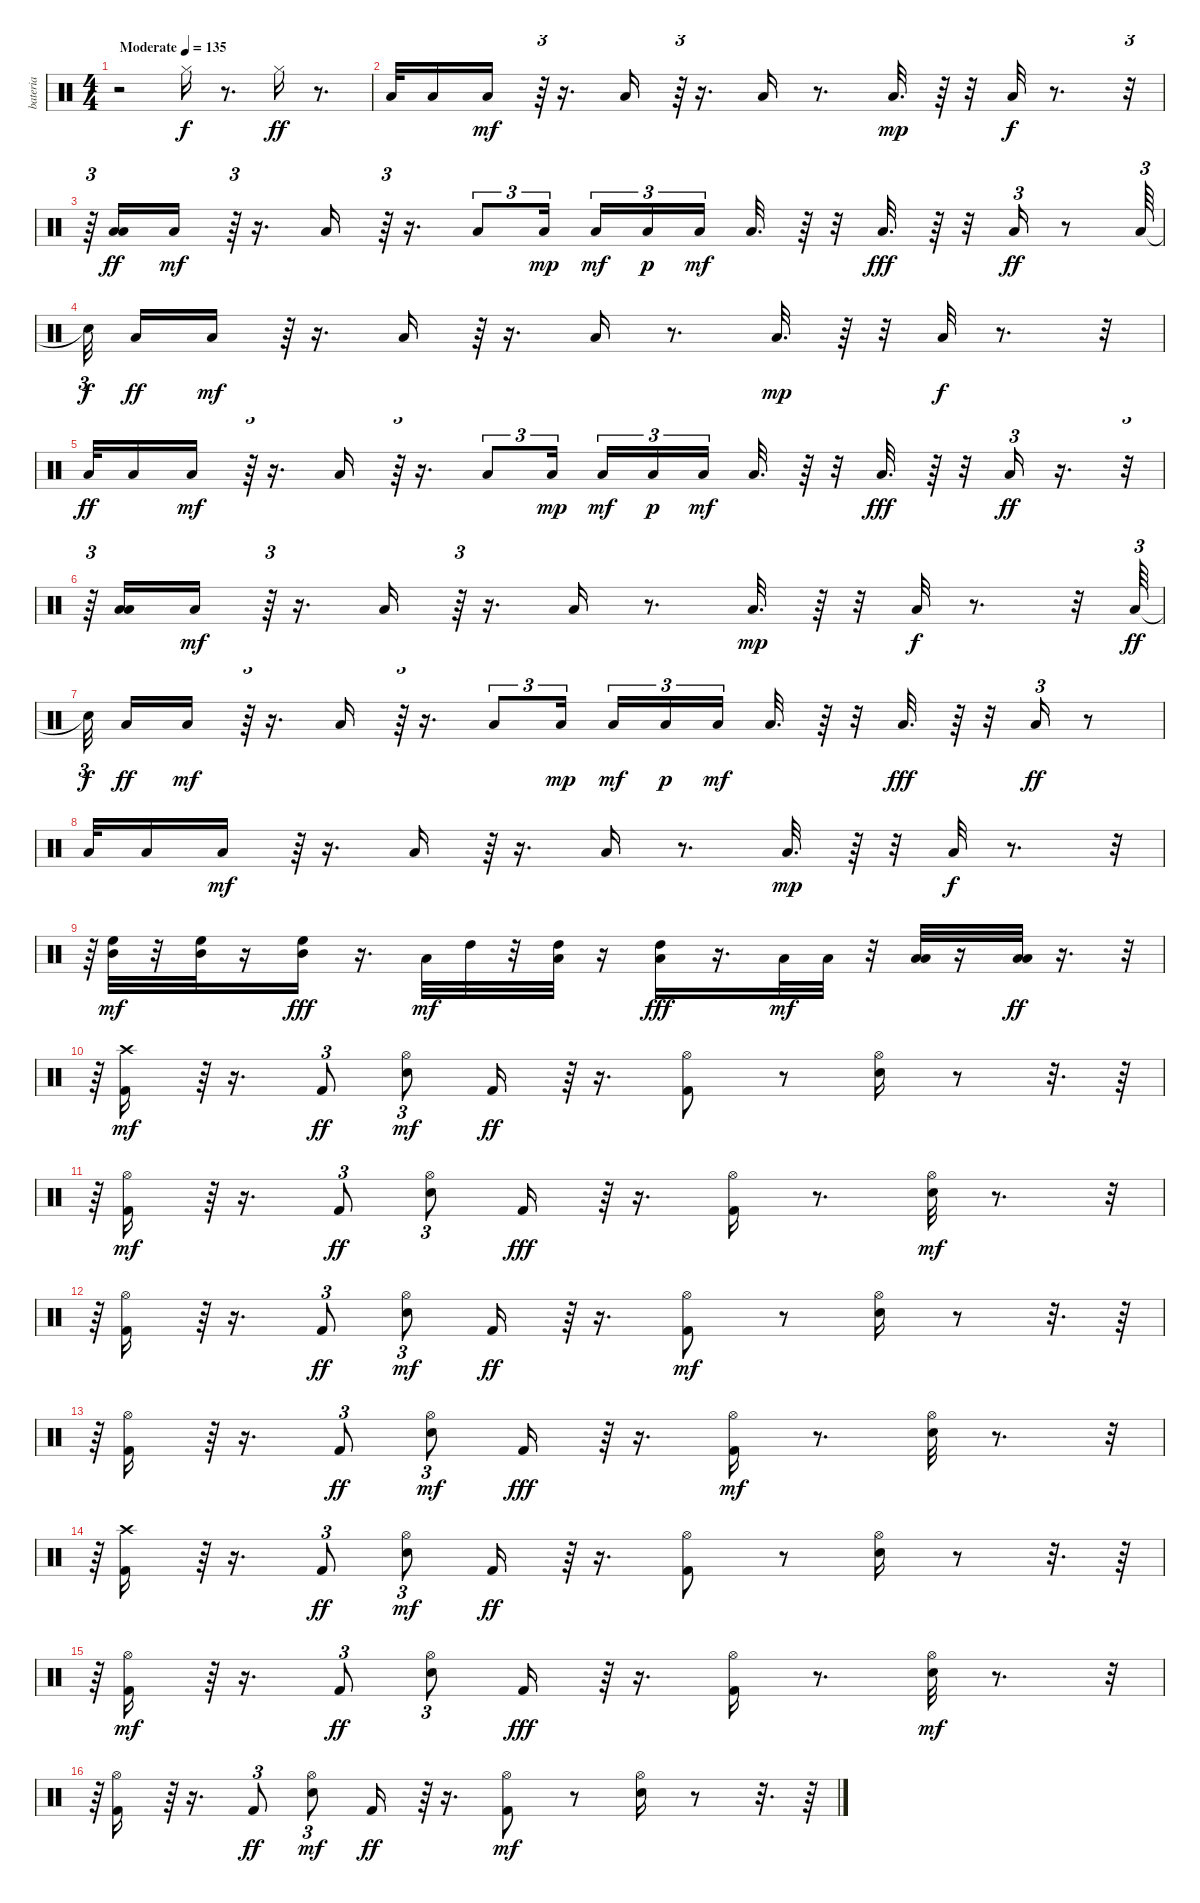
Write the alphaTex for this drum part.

\track ("bateria" "bateria") {instrument percussion}
\staff {score}
\articulation defaults
\ts (4 4)
\tempo (135 "Moderate")
\clef neutral
\ks c
r.2{dy f} "Hi-Hat (closed)".16 r.8{d} "Hi-Hat (closed)".16{dy ff} r.8{d} |
"Low Floor Tom (hit)".32 "Low Floor Tom (hit)".16 "Low Floor Tom (hit)".16{dy mf} r.64{tu (3 2)} r.16{d} "Low Floor Tom (hit)".16 r.64{tu (3 2)} r.16{d} "Low Floor Tom (hit)".16 r.8{d} "Low Floor Tom (hit)".32{d dy mp} r.64 r.32 "Low Floor Tom (hit)".32{dy f} r.8{d} r.32{tu (3 2)} |
r.64{tu (3 2)} ("Low Floor Tom (hit)" "Low Floor Tom (hit)").16{dy ff} "Low Floor Tom (hit)".16{dy mf} r.64{tu (3 2)} r.16{d} "Low Floor Tom (hit)".16 r.64{tu (3 2)} r.16{d} "Low Floor Tom (hit)".8{tu (3 2)} "Low Floor Tom (hit)".16{tu (3 2) dy mp} "Low Floor Tom (hit)".16{tu (3 2) dy mf} "Low Floor Tom (hit)".16{tu (3 2) dy p} "Low Floor Tom (hit)".16{tu (3 2) dy mf beam splitsecondary} "Low Floor Tom (hit)".32{d} r.64 r.32 "Low Floor Tom (hit)".32{d dy fff} r.64 r.32 "Low Floor Tom (hit)".16{tu (3 2) dy ff} r.8 "Low Floor Tom (hit)".64{tu (3 2)} |
"Snare (hit)"{t}.32{tu (3 2) dy f beam splitsecondary} "Low Floor Tom (hit)".16{dy ff} "Low Floor Tom (hit)".16{dy mf} r.64{tu (3 2)} r.16{d} "Low Floor Tom (hit)".16 r.64{tu (3 2)} r.16{d} "Low Floor Tom (hit)".16 r.8{d} "Low Floor Tom (hit)".32{d dy mp} r.64 r.32 "Low Floor Tom (hit)".32{dy f} r.8{d} r.32 |
"Low Floor Tom (hit)".32{dy ff} "Low Floor Tom (hit)".16 "Low Floor Tom (hit)".16{dy mf} r.64{tu (3 2)} r.16{d} "Low Floor Tom (hit)".16 r.64{tu (3 2)} r.16{d} "Low Floor Tom (hit)".8{tu (3 2)} "Low Floor Tom (hit)".16{tu (3 2) dy mp beam splitsecondary} "Low Floor Tom (hit)".16{tu (3 2) dy mf} "Low Floor Tom (hit)".16{tu (3 2) dy p} "Low Floor Tom (hit)".16{tu (3 2) dy mf beam splitsecondary} "Low Floor Tom (hit)".32{d} r.64 r.32 "Low Floor Tom (hit)".32{d dy fff} r.64 r.32 "Low Floor Tom (hit)".16{tu (3 2) dy ff} r.16{d} r.32{tu (3 2)} |
r.64{tu (3 2)} ("Low Floor Tom (hit)" "Low Floor Tom (hit)").16 "Low Floor Tom (hit)".16{dy mf} r.64{tu (3 2)} r.16{d} "Low Floor Tom (hit)".16 r.64{tu (3 2)} r.16{d} "Low Floor Tom (hit)".16 r.8{d} "Low Floor Tom (hit)".32{d dy mp} r.64 r.32 "Low Floor Tom (hit)".32{dy f} r.8{d} r.32 "Low Floor Tom (hit)".64{tu (3 2) dy ff} |
"Snare (hit)"{t}.32{tu (3 2) dy f beam splitsecondary} "Low Floor Tom (hit)".16{dy ff} "Low Floor Tom (hit)".16{dy mf} r.64{tu (3 2)} r.16{d} "Low Floor Tom (hit)".16 r.64{tu (3 2)} r.16{d} "Low Floor Tom (hit)".8{tu (3 2)} "Low Floor Tom (hit)".16{tu (3 2) dy mp beam splitsecondary} "Low Floor Tom (hit)".16{tu (3 2) dy mf} "Low Floor Tom (hit)".16{tu (3 2) dy p} "Low Floor Tom (hit)".16{tu (3 2) dy mf beam splitsecondary} "Low Floor Tom (hit)".32{d} r.64 r.32 "Low Floor Tom (hit)".32{d dy fff} r.64 r.32 "Low Floor Tom (hit)".16{tu (3 2) dy ff} r.8 |
"Low Floor Tom (hit)".32 "Low Floor Tom (hit)".16 "Low Floor Tom (hit)".16{dy mf} r.64{tu (3 2)} r.16{d} "Low Floor Tom (hit)".16 r.64{tu (3 2)} r.16{d} "Low Floor Tom (hit)".16 r.8{d} "Low Floor Tom (hit)".32{d dy mp} r.64 r.32 "Low Floor Tom (hit)".32{dy f} r.8{d} r.32{tu (3 2)} |
r.64{tu (3 2)} ("Mid Tom (hit)" "High Floor Tom (hit)").32{dy mf} r.32 ("High Floor Tom (hit)" "Mid Tom (hit)").32 r.16 ("High Floor Tom (hit)" "Mid Tom (hit)").16{dy fff} r.16{d} "Low Tom (hit)".32{dy mf} "High Tom (hit)".32 r.32 ("High Tom (hit)" "Low Tom (hit)").32 r.16 ("High Tom (hit)" "Low Tom (hit)").16{dy fff} r.16{d} "Low Floor Tom (hit)".32{dy mf} "Low Tom (hit)".32 r.32 ("Low Tom (hit)" "Low Floor Tom (hit)").32 r.16 ("Low Tom (hit)" "Low Floor Tom (hit)").32{dy ff} r.16{d} r.32{tu (3 2)} |
r.64{tu (3 2)} ("Kick (hit) 2" "Crash high (hit)").16{dy mf} r.64{tu (3 2)} r.16{d} "Kick (hit) 2".8{tu (3 2) dy ff} ("Hi-Hat (open)" "Electric Snare (hit)").8{tu (3 2) dy mf} "Kick (hit) 2".16{dy ff} r.64{tu (3 2)} r.16{d} ("Hi-Hat (open)" "Kick (hit) 2").8 r.8 ("Hi-Hat (open)" "Electric Snare (hit)").16 r.8 r.32{d} r.64 |
r.64{tu (3 2)} ("Kick (hit) 2" "Hi-Hat (open)").16{dy mf} r.64{tu (3 2)} r.16{d} "Kick (hit) 2".8{tu (3 2) dy ff} ("Hi-Hat (open)" "Electric Snare (hit)").8{tu (3 2)} "Kick (hit) 2".16{dy fff} r.64{tu (3 2)} r.16{d} ("Hi-Hat (open)" "Kick (hit) 2").16 r.8{d} ("Electric Snare (hit)" "Hi-Hat (open)").32{dy mf} r.8{d} r.32{tu (3 2)} |
r.64{tu (3 2)} ("Kick (hit) 2" "Hi-Hat (open)").16 r.64{tu (3 2)} r.16{d} "Kick (hit) 2".8{tu (3 2) dy ff} ("Electric Snare (hit)" "Hi-Hat (open)").8{tu (3 2) dy mf} "Kick (hit) 2".16{dy ff} r.64{tu (3 2)} r.16{d} ("Kick (hit) 2" "Hi-Hat (open)").8{dy mf} r.8 ("Electric Snare (hit)" "Hi-Hat (open)").16 r.8 r.32{d} r.64 |
r.64{tu (3 2)} ("Kick (hit) 2" "Hi-Hat (open)").16 r.64{tu (3 2)} r.16{d} "Kick (hit) 2".8{tu (3 2) dy ff} ("Electric Snare (hit)" "Hi-Hat (open)").8{tu (3 2) dy mf} "Kick (hit) 2".16{dy fff} r.64{tu (3 2)} r.16{d} ("Kick (hit) 2" "Hi-Hat (open)").16{dy mf} r.8{d} ("Electric Snare (hit)" "Hi-Hat (open)").32 r.8{d} r.32{tu (3 2)} |
r.64{tu (3 2)} ("Kick (hit) 2" "Crash high (hit)").16 r.64{tu (3 2)} r.16{d} "Kick (hit) 2".8{tu (3 2) dy ff} ("Hi-Hat (open)" "Electric Snare (hit)").8{tu (3 2) dy mf} "Kick (hit) 2".16{dy ff} r.64{tu (3 2)} r.16{d} ("Hi-Hat (open)" "Kick (hit) 2").8 r.8 ("Hi-Hat (open)" "Electric Snare (hit)").16 r.8 r.32{d} r.64 |
r.64{tu (3 2)} ("Kick (hit) 2" "Hi-Hat (open)").16{dy mf} r.64{tu (3 2)} r.16{d} "Kick (hit) 2".8{tu (3 2) dy ff} ("Hi-Hat (open)" "Electric Snare (hit)").8{tu (3 2)} "Kick (hit) 2".16{dy fff} r.64{tu (3 2)} r.16{d} ("Hi-Hat (open)" "Kick (hit) 2").16 r.8{d} ("Electric Snare (hit)" "Hi-Hat (open)").32{dy mf} r.8{d} r.32{tu (3 2)} |
r.64{tu (3 2)} ("Kick (hit) 2" "Hi-Hat (open)").16 r.64{tu (3 2)} r.16{d} "Kick (hit) 2".8{tu (3 2) dy ff} ("Electric Snare (hit)" "Hi-Hat (open)").8{tu (3 2) dy mf} "Kick (hit) 2".16{dy ff} r.64{tu (3 2)} r.16{d} ("Kick (hit) 2" "Hi-Hat (open)").8{dy mf} r.8 ("Electric Snare (hit)" "Hi-Hat (open)").16 r.8 r.32{d} r.64
